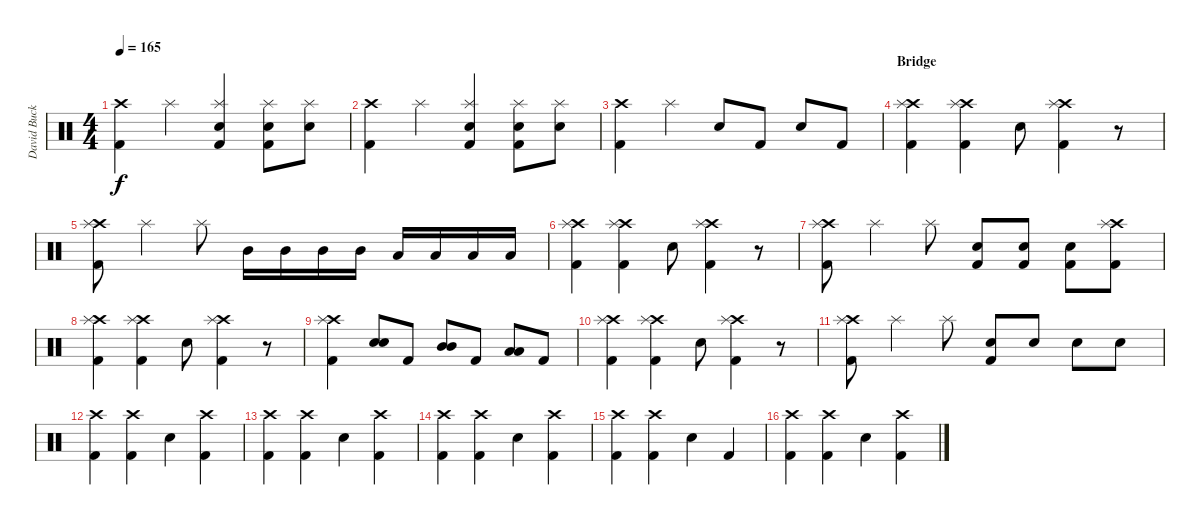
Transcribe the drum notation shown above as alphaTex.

\track ("David Buckner" "David Buck") {instrument percussion}
\staff {score}
\articulation defaults
\ts (4 4)
\tempo 165
\clef neutral
\ks c
("Crash high (hit)" "Kick (hit) 2").4{dy f} "Splash (hit)".4 ("Splash (hit)" "Snare (hit) 2" "Kick (hit) 2").4 ("Splash (hit)" "Snare (hit) 2" "Kick (hit) 2").8 ("Splash (hit)" "Snare (hit) 2").8 |
("Crash high (hit)" "Kick (hit) 2").4 "Splash (hit)".4 ("Splash (hit)" "Snare (hit) 2" "Kick (hit) 2").4 ("Splash (hit)" "Snare (hit) 2" "Kick (hit) 2").8 ("Splash (hit)" "Snare (hit) 2").8 |
("Crash high (hit)" "Kick (hit) 2").4 "Splash (hit)".4 "Snare (hit) 2".8 "Kick (hit) 2".8 "Snare (hit) 2".8 "Kick (hit) 2".8 |
\section ("" "Bridge")
("Crash high (hit)" "Splash (hit)" "Kick (hit) 2").4 ("Crash high (hit)" "Splash (hit)" "Kick (hit) 2").4 "Snare (hit) 2".8 ("Crash high (hit)" "Splash (hit)" "Kick (hit) 2").4 r.8 |
("Crash high (hit)" "Splash (hit)" "Kick (hit) 2").8 "Splash (hit)".4 "Splash (hit)".8 "Mid Tom (hit)".16 "Mid Tom (hit)".16 "Mid Tom (hit)".16 "Mid Tom (hit)".16 "Low Tom (hit)".16 "Low Tom (hit)".16 "Low Tom (hit)".16 "Low Tom (hit)".16 |
("Crash high (hit)" "Splash (hit)" "Kick (hit) 2").4 ("Crash high (hit)" "Splash (hit)" "Kick (hit) 2").4 "Snare (hit) 2".8 ("Crash high (hit)" "Splash (hit)" "Kick (hit) 2").4 r.8 |
("Crash high (hit)" "Splash (hit)" "Kick (hit) 2").8 "Splash (hit)".4 "Splash (hit)".8 ("Snare (hit) 2" "Kick (hit) 2").8 ("Snare (hit) 2" "Kick (hit) 2").8 ("Snare (hit) 2" "Kick (hit) 2").8 ("Crash high (hit)" "Splash (hit)" "Kick (hit) 2").8 |
("Crash high (hit)" "Splash (hit)" "Kick (hit) 2").4 ("Crash high (hit)" "Splash (hit)" "Kick (hit) 2").4 "Snare (hit) 2".8 ("Crash high (hit)" "Splash (hit)" "Kick (hit) 2").4 r.8 |
("Crash high (hit)" "Splash (hit)" "Kick (hit) 2").4 ("Snare (hit) 2" "Snare (hit) 2").8 "Kick (hit) 2".8 ("Mid Tom (hit)" "Mid Tom (hit)").8 "Kick (hit) 2".8 ("Low Tom (hit)" "Low Tom (hit)").8 "Kick (hit) 2".8 |
("Crash high (hit)" "Splash (hit)" "Kick (hit) 2").4 ("Crash high (hit)" "Splash (hit)" "Kick (hit) 2").4 "Snare (hit) 2".8 ("Crash high (hit)" "Splash (hit)" "Kick (hit) 2").4 r.8 |
("Crash high (hit)" "Splash (hit)" "Kick (hit) 2").8 "Splash (hit)".4 "Splash (hit)".8 ("Snare (hit) 2" "Kick (hit) 2").8 "Snare (hit) 2".8 "Snare (hit) 2".8 "Snare (hit) 2".8 |
("Crash high (hit)" "Kick (hit) 2").4 ("Crash high (hit)" "Kick (hit) 2").4 "Snare (hit) 2".4 ("Crash high (hit)" "Kick (hit) 2").4 |
("Crash high (hit)" "Kick (hit) 2").4 ("Crash high (hit)" "Kick (hit) 2").4 "Snare (hit) 2".4 ("Crash high (hit)" "Kick (hit) 2").4 |
("Crash high (hit)" "Kick (hit) 2").4 ("Crash high (hit)" "Kick (hit) 2").4 "Snare (hit) 2".4 ("Crash high (hit)" "Kick (hit) 2").4 |
("Crash high (hit)" "Kick (hit) 2").4 ("Crash high (hit)" "Kick (hit) 2").4 "Snare (hit) 2".4 "Kick (hit) 2".4 |
("Crash high (hit)" "Kick (hit) 2").4 ("Crash high (hit)" "Kick (hit) 2").4 "Snare (hit) 2".4 ("Crash high (hit)" "Kick (hit) 2").4
